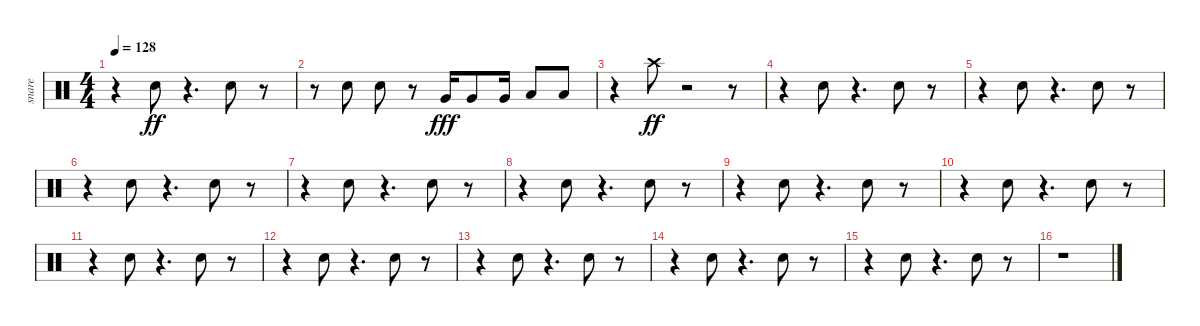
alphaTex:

\track ("snare" "snare") {instrument percussion}
\staff {score}
\articulation defaults
\ts (4 4)
\tempo 128
\clef neutral
\ks c
r.4{dy ff} "Electric Snare (hit)".8 r.4{d} "Electric Snare (hit)".8 r.8 |
r.8 "Electric Snare (hit)".8 "Electric Snare (hit)".8 r.8 "Very Low Tom (hit)".16{dy fff} "Very Low Tom (hit)".8 "Very Low Tom (hit)".16 "Low Tom (hit)".8 "Low Tom (hit)".8 |
r.4 "Crash high (hit)".8{dy ff} r.2 r.8 |
r.4 "Electric Snare (hit)".8 r.4{d} "Electric Snare (hit)".8 r.8 |
r.4 "Electric Snare (hit)".8 r.4{d} "Electric Snare (hit)".8 r.8 |
r.4 "Electric Snare (hit)".8 r.4{d} "Electric Snare (hit)".8 r.8 |
r.4 "Electric Snare (hit)".8 r.4{d} "Electric Snare (hit)".8 r.8 |
r.4 "Electric Snare (hit)".8 r.4{d} "Electric Snare (hit)".8 r.8 |
r.4 "Electric Snare (hit)".8 r.4{d} "Electric Snare (hit)".8 r.8 |
r.4 "Electric Snare (hit)".8 r.4{d} "Electric Snare (hit)".8 r.8 |
r.4 "Electric Snare (hit)".8 r.4{d} "Electric Snare (hit)".8 r.8 |
r.4 "Electric Snare (hit)".8 r.4{d} "Electric Snare (hit)".8 r.8 |
r.4 "Electric Snare (hit)".8 r.4{d} "Electric Snare (hit)".8 r.8 |
r.4 "Electric Snare (hit)".8 r.4{d} "Electric Snare (hit)".8 r.8 |
r.4 "Electric Snare (hit)".8 r.4{d} "Electric Snare (hit)".8 r.8 |
r.1
